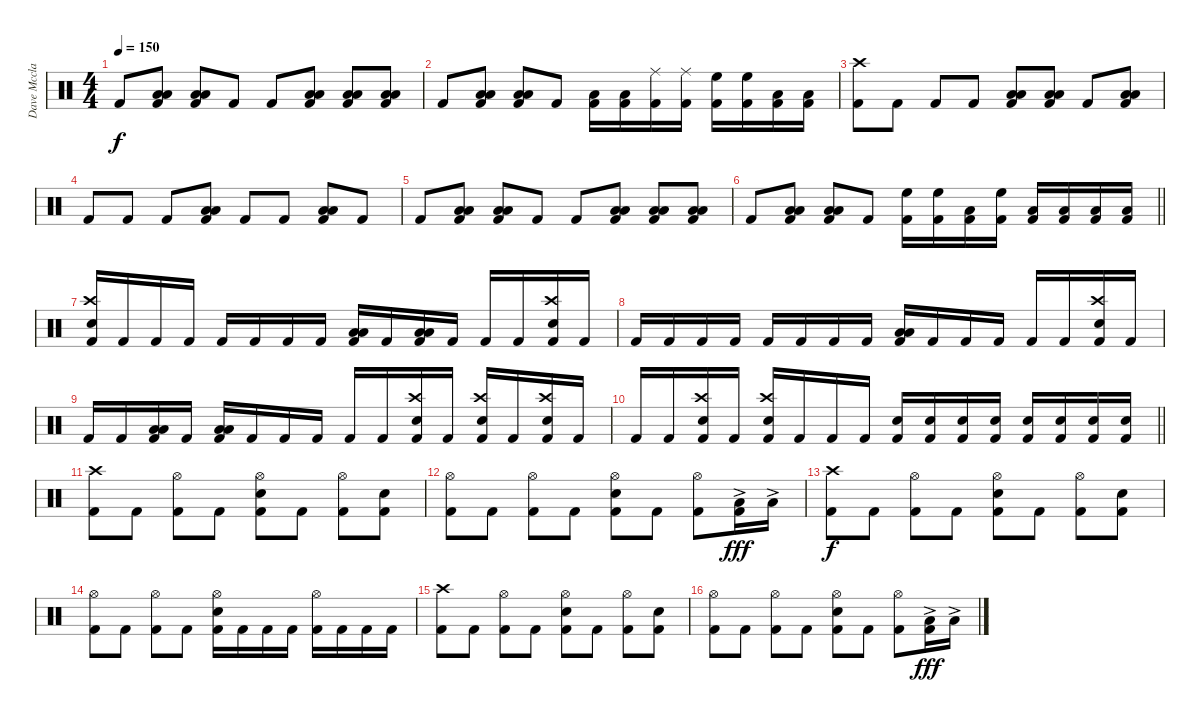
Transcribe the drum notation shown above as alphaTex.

\track ("Dave Mcclain" "Dave Mccla") {instrument percussion}
\staff {score}
\articulation defaults
\ts (4 4)
\tempo 150
\clef neutral
\ks c "Kick (hit) 2".8{dy f}
("Low Tom (hit)" "Low Floor Tom (hit)" "Kick (hit) 2").8 ("Low Tom (hit)" "Low Floor Tom (hit)" "Kick (hit) 2").8 "Kick (hit) 2".8 "Kick (hit) 2".8 ("Low Tom (hit)" "Low Floor Tom (hit)" "Kick (hit) 2").8 ("Low Tom (hit)" "Low Floor Tom (hit)" "Kick (hit) 2").8 ("Low Tom (hit)" "Low Floor Tom (hit)" "Kick (hit) 2").8 |
"Kick (hit) 2".8 ("Low Tom (hit)" "Low Floor Tom (hit)" "Kick (hit) 2").8 ("Low Tom (hit)" "Low Floor Tom (hit)" "Kick (hit) 2").8 "Kick (hit) 2".8 ("Low Tom (hit)" "Kick (hit) 2").16 ("Low Tom (hit)" "Kick (hit) 2").16 ("Ride (middle)" "Kick (hit) 2").16 ("Ride (middle)" "Kick (hit) 2").16 ("High Floor Tom (hit)" "Kick (hit) 2").16 ("High Floor Tom (hit)" "Kick (hit) 2").16 ("Low Tom (hit)" "Kick (hit) 2").16 ("Low Floor Tom (hit)" "Kick (hit) 2").16 |
("Crash high (hit)" "Kick (hit) 2").8 "Kick (hit) 2".8 "Kick (hit) 2".8 "Kick (hit) 2".8 ("Low Tom (hit)" "Low Floor Tom (hit)" "Kick (hit) 2").8 ("Low Tom (hit)" "Low Floor Tom (hit)" "Kick (hit) 2").8 "Kick (hit) 2".8 ("Low Tom (hit)" "Low Floor Tom (hit)" "Kick (hit) 2").8 |
"Kick (hit) 2".8 "Kick (hit) 2".8 "Kick (hit) 2".8 ("Low Tom (hit)" "Low Floor Tom (hit)" "Kick (hit) 2").8 "Kick (hit) 2".8 "Kick (hit) 2".8 ("Low Tom (hit)" "Low Floor Tom (hit)" "Kick (hit) 2").8 "Kick (hit) 2".8 |
"Kick (hit) 2".8 ("Low Tom (hit)" "Low Floor Tom (hit)" "Kick (hit) 2").8 ("Low Tom (hit)" "Low Floor Tom (hit)" "Kick (hit) 2").8 "Kick (hit) 2".8 "Kick (hit) 2".8 ("Low Tom (hit)" "Low Floor Tom (hit)" "Kick (hit) 2").8 ("Low Tom (hit)" "Low Floor Tom (hit)" "Kick (hit) 2").8 ("Low Tom (hit)" "Low Floor Tom (hit)" "Kick (hit) 2").8 |
\barLineRight lightlight "Kick (hit) 2".8
("Low Tom (hit)" "Low Floor Tom (hit)" "Kick (hit) 2").8 ("Low Tom (hit)" "Low Floor Tom (hit)" "Kick (hit) 2").8 "Kick (hit) 2".8 ("High Floor Tom (hit)" "Kick (hit) 2").16 ("High Floor Tom (hit)" "Kick (hit) 2").16 ("Low Tom (hit)" "Kick (hit) 2").16 ("High Floor Tom (hit)" "Kick (hit) 2").16 ("Low Tom (hit)" "Kick (hit) 2").16 ("Low Tom (hit)" "Kick (hit) 2").16 ("Low Floor Tom (hit)" "Kick (hit) 2").16 ("Low Floor Tom (hit)" "Kick (hit) 2").16 |
\section ("" "")
("Crash high (hit)" "Electric Snare (hit)" "Kick (hit) 2").16 "Kick (hit) 2".16 "Kick (hit) 2".16 "Kick (hit) 2".16 "Kick (hit) 2".16 "Kick (hit) 2".16 "Kick (hit) 2".16 "Kick (hit) 2".16 ("Low Tom (hit)" "Low Floor Tom (hit)" "Kick (hit) 2").16 "Kick (hit) 2".16 ("Low Tom (hit)" "Low Floor Tom (hit)" "Kick (hit) 2").16 "Kick (hit) 2".16 "Kick (hit) 2".16 "Kick (hit) 2".16 ("Crash high (hit)" "Electric Snare (hit)" "Kick (hit) 2").16 "Kick (hit) 2".16 |
"Kick (hit) 2".16 "Kick (hit) 2".16 "Kick (hit) 2".16 "Kick (hit) 2".16 "Kick (hit) 2".16 "Kick (hit) 2".16 "Kick (hit) 2".16 "Kick (hit) 2".16 ("Low Tom (hit)" "Low Floor Tom (hit)" "Kick (hit) 2").16 "Kick (hit) 2".16 "Kick (hit) 2".16 "Kick (hit) 2".16 "Kick (hit) 2".16 "Kick (hit) 2".16 ("Crash high (hit)" "Electric Snare (hit)" "Kick (hit) 2").16 "Kick (hit) 2".16 |
"Kick (hit) 2".16 "Kick (hit) 2".16 ("Low Tom (hit)" "Low Floor Tom (hit)" "Kick (hit) 2").16 "Kick (hit) 2".16 ("Low Tom (hit)" "Low Floor Tom (hit)" "Kick (hit) 2").16 "Kick (hit) 2".16 "Kick (hit) 2".16 "Kick (hit) 2".16 "Kick (hit) 2".16 "Kick (hit) 2".16 ("Crash high (hit)" "Electric Snare (hit)" "Kick (hit) 2").16 "Kick (hit) 2".16 ("Crash high (hit)" "Electric Snare (hit)" "Kick (hit) 2").16 "Kick (hit) 2".16 ("Crash high (hit)" "Electric Snare (hit)" "Kick (hit) 2").16 "Kick (hit) 2".16 |
\barLineRight lightlight "Kick (hit) 2".16 "Kick (hit) 2".16
("Crash high (hit)" "Electric Snare (hit)" "Kick (hit) 2").16 "Kick (hit) 2".16 ("Crash high (hit)" "Electric Snare (hit)" "Kick (hit) 2").16 "Kick (hit) 2".16 "Kick (hit) 2".16 "Kick (hit) 2".16 ("Electric Snare (hit)" "Kick (hit) 2").16 ("Electric Snare (hit)" "Kick (hit) 2").16 ("Electric Snare (hit)" "Kick (hit) 2").16 ("Electric Snare (hit)" "Kick (hit) 2").16 ("Electric Snare (hit)" "Kick (hit) 2").16 ("Electric Snare (hit)" "Kick (hit) 2").16 ("Electric Snare (hit)" "Kick (hit) 2").16 ("Electric Snare (hit)" "Kick (hit) 2").16 |
\section ("" "")
("Crash high (hit)" "Kick (hit) 2").8 "Kick (hit) 2".8 ("Hi-Hat (open)" "Kick (hit) 2").8 "Kick (hit) 2".8 ("Hi-Hat (open)" "Electric Snare (hit)" "Kick (hit) 2").8 "Kick (hit) 2".8 ("Hi-Hat (open)" "Kick (hit) 2").8 ("Electric Snare (hit)" "Kick (hit) 2").8 |
("Hi-Hat (open)" "Kick (hit) 2").8 "Kick (hit) 2".8 ("Hi-Hat (open)" "Kick (hit) 2").8 "Kick (hit) 2".8 ("Hi-Hat (open)" "Electric Snare (hit)" "Kick (hit) 2").8 "Kick (hit) 2".8 ("Hi-Hat (open)" "Kick (hit) 2").8 ("Low Tom (hit)"{ac} "Kick (hit) 2").16{dy fff} "Low Floor Tom (hit)"{ac}.16 |
("Crash high (hit)" "Kick (hit) 2").8{dy f} "Kick (hit) 2".8 ("Hi-Hat (open)" "Kick (hit) 2").8 "Kick (hit) 2".8 ("Hi-Hat (open)" "Electric Snare (hit)" "Kick (hit) 2").8 "Kick (hit) 2".8 ("Hi-Hat (open)" "Kick (hit) 2").8 ("Electric Snare (hit)" "Kick (hit) 2").8 |
("Hi-Hat (open)" "Kick (hit) 2").8 "Kick (hit) 2".8 ("Hi-Hat (open)" "Kick (hit) 2").8 "Kick (hit) 2".8 ("Hi-Hat (open)" "Electric Snare (hit)" "Kick (hit) 2").16 "Kick (hit) 2".16 "Kick (hit) 2".16 "Kick (hit) 2".16 ("Hi-Hat (open)" "Kick (hit) 2").16 "Kick (hit) 2".16 "Kick (hit) 2".16 "Kick (hit) 2".16 |
("Crash high (hit)" "Kick (hit) 2").8 "Kick (hit) 2".8 ("Hi-Hat (open)" "Kick (hit) 2").8 "Kick (hit) 2".8 ("Hi-Hat (open)" "Electric Snare (hit)" "Kick (hit) 2").8 "Kick (hit) 2".8 ("Hi-Hat (open)" "Kick (hit) 2").8 ("Electric Snare (hit)" "Kick (hit) 2").8 |
("Hi-Hat (open)" "Kick (hit) 2").8 "Kick (hit) 2".8 ("Hi-Hat (open)" "Kick (hit) 2").8 "Kick (hit) 2".8 ("Hi-Hat (open)" "Electric Snare (hit)" "Kick (hit) 2").8 "Kick (hit) 2".8 ("Hi-Hat (open)" "Kick (hit) 2").8 ("Low Tom (hit)"{ac} "Kick (hit) 2").16{dy fff} "Low Floor Tom (hit)"{ac}.16
